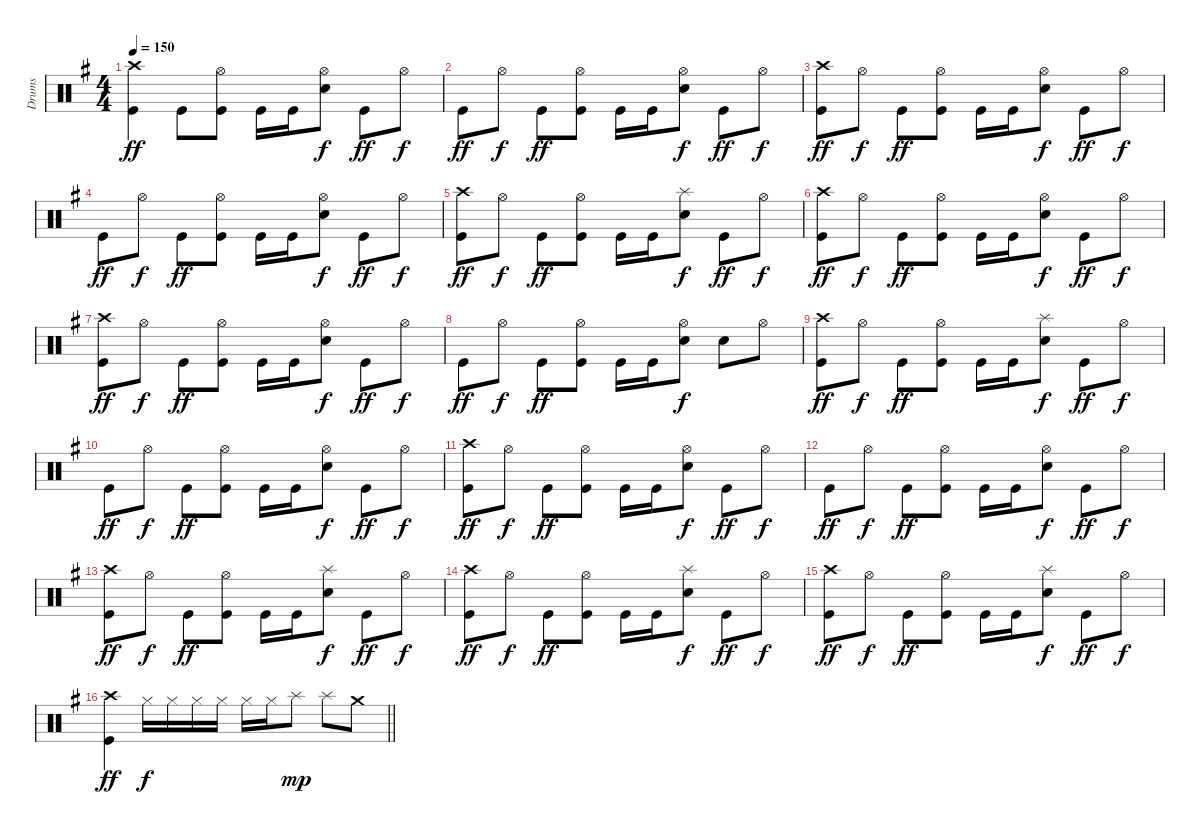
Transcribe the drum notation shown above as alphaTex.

\track ("Drums" "Drums") {instrument percussion}
\staff {score}
\articulation defaults
\ts (4 4)
\tempo 150
\clef neutral
\ks g
("Crash high (hit)" "Kick (hit)").4{dy ff} "Kick (hit)".8 ("Hi-Hat (open)" "Kick (hit)").8 "Kick (hit)".16 "Kick (hit)".16 ("Hi-Hat (open)" "Electric Snare (hit)").8{dy f} "Kick (hit)".8{dy ff} "Hi-Hat (open)".8{dy f} |
"Kick (hit)".8{dy ff} "Hi-Hat (open)".8{dy f} "Kick (hit)".8{dy ff} ("Hi-Hat (open)" "Kick (hit)").8 "Kick (hit)".16 "Kick (hit)".16 ("Hi-Hat (open)" "Electric Snare (hit)").8{dy f} "Kick (hit)".8{dy ff} "Hi-Hat (open)".8{dy f} |
("Crash high (hit)" "Kick (hit)").8{dy ff} "Hi-Hat (open)".8{dy f} "Kick (hit)".8{dy ff} ("Hi-Hat (open)" "Kick (hit)").8 "Kick (hit)".16 "Kick (hit)".16 ("Hi-Hat (open)" "Electric Snare (hit)").8{dy f} "Kick (hit)".8{dy ff} "Hi-Hat (open)".8{dy f} |
"Kick (hit)".8{dy ff} "Hi-Hat (open)".8{dy f} "Kick (hit)".8{dy ff} ("Hi-Hat (open)" "Kick (hit)").8 "Kick (hit)".16 "Kick (hit)".16 ("Hi-Hat (open)" "Electric Snare (hit)").8{dy f} "Kick (hit)".8{dy ff} "Hi-Hat (open)".8{dy f} |
("Crash high (hit)" "Kick (hit)").8{dy ff} "Hi-Hat (open)".8{dy f} "Kick (hit)".8{dy ff} ("Hi-Hat (open)" "Kick (hit)").8 "Kick (hit)".16 "Kick (hit)".16 ("Splash (hit)" "Electric Snare (hit)").8{dy f} "Kick (hit)".8{dy ff} "Hi-Hat (open)".8{dy f} |
("Crash high (hit)" "Kick (hit)").8{dy ff} "Hi-Hat (open)".8{dy f} "Kick (hit)".8{dy ff} ("Hi-Hat (open)" "Kick (hit)").8 "Kick (hit)".16 "Kick (hit)".16 ("Hi-Hat (open)" "Electric Snare (hit)").8{dy f} "Kick (hit)".8{dy ff} "Hi-Hat (open)".8{dy f} |
("Crash high (hit)" "Kick (hit)").8{dy ff} "Hi-Hat (open)".8{dy f} "Kick (hit)".8{dy ff} ("Hi-Hat (open)" "Kick (hit)").8 "Kick (hit)".16 "Kick (hit)".16 ("Hi-Hat (open)" "Electric Snare (hit)").8{dy f} "Kick (hit)".8{dy ff} "Hi-Hat (open)".8{dy f} |
"Kick (hit)".8{dy ff} "Hi-Hat (open)".8{dy f} "Kick (hit)".8{dy ff} ("Hi-Hat (open)" "Kick (hit)").8 "Kick (hit)".16 "Kick (hit)".16 ("Hi-Hat (open)" "Electric Snare (hit)").8{dy f} "Electric Snare (hit)".8 "Hi-Hat (open)".8 |
("Crash high (hit)" "Kick (hit)").8{dy ff} "Hi-Hat (open)".8{dy f} "Kick (hit)".8{dy ff} ("Hi-Hat (open)" "Kick (hit)").8 "Kick (hit)".16 "Kick (hit)".16 ("Splash (hit)" "Electric Snare (hit)").8{dy f} "Kick (hit)".8{dy ff} "Hi-Hat (open)".8{dy f} |
"Kick (hit)".8{dy ff} "Hi-Hat (open)".8{dy f} "Kick (hit)".8{dy ff} ("Hi-Hat (open)" "Kick (hit)").8 "Kick (hit)".16 "Kick (hit)".16 ("Hi-Hat (open)" "Electric Snare (hit)").8{dy f} "Kick (hit)".8{dy ff} "Hi-Hat (open)".8{dy f} |
("Crash high (hit)" "Kick (hit)").8{dy ff} "Hi-Hat (open)".8{dy f} "Kick (hit)".8{dy ff} ("Hi-Hat (open)" "Kick (hit)").8 "Kick (hit)".16 "Kick (hit)".16 ("Hi-Hat (open)" "Electric Snare (hit)").8{dy f} "Kick (hit)".8{dy ff} "Hi-Hat (open)".8{dy f} |
"Kick (hit)".8{dy ff} "Hi-Hat (open)".8{dy f} "Kick (hit)".8{dy ff} ("Hi-Hat (open)" "Kick (hit)").8 "Kick (hit)".16 "Kick (hit)".16 ("Hi-Hat (open)" "Electric Snare (hit)").8{dy f} "Kick (hit)".8{dy ff} "Hi-Hat (open)".8{dy f} |
("Crash high (hit)" "Kick (hit)").8{dy ff} "Hi-Hat (open)".8{dy f} "Kick (hit)".8{dy ff} ("Hi-Hat (open)" "Kick (hit)").8 "Kick (hit)".16 "Kick (hit)".16 ("Splash (hit)" "Electric Snare (hit)").8{dy f} "Kick (hit)".8{dy ff} "Hi-Hat (open)".8{dy f} |
("Crash high (hit)" "Kick (hit)").8{dy ff} "Hi-Hat (open)".8{dy f} "Kick (hit)".8{dy ff} ("Hi-Hat (open)" "Kick (hit)").8 "Kick (hit)".16 "Kick (hit)".16 ("Splash (hit)" "Electric Snare (hit)").8{dy f} "Kick (hit)".8{dy ff} "Hi-Hat (open)".8{dy f} |
("Crash high (hit)" "Kick (hit)").8{dy ff} "Hi-Hat (open)".8{dy f} "Kick (hit)".8{dy ff} ("Hi-Hat (open)" "Kick (hit)").8 "Kick (hit)".16 "Kick (hit)".16 ("Splash (hit)" "Electric Snare (hit)").8{dy f} "Kick (hit)".8{dy ff} "Hi-Hat (open)".8{dy f} |
\barLineRight lightlight
("Crash high (hit)" "Kick (hit)").4{dy ff} "Hi-Hat (closed)".16{dy f} "Hi-Hat (closed)".16 "Hi-Hat (closed)".16 "Hi-Hat (closed)".16 "Hi-Hat (closed)".16 "Hi-Hat (closed)".16 "Splash (hit)".8{dy mp} "Splash (hit)".8 "Crash medium (hit)".8
